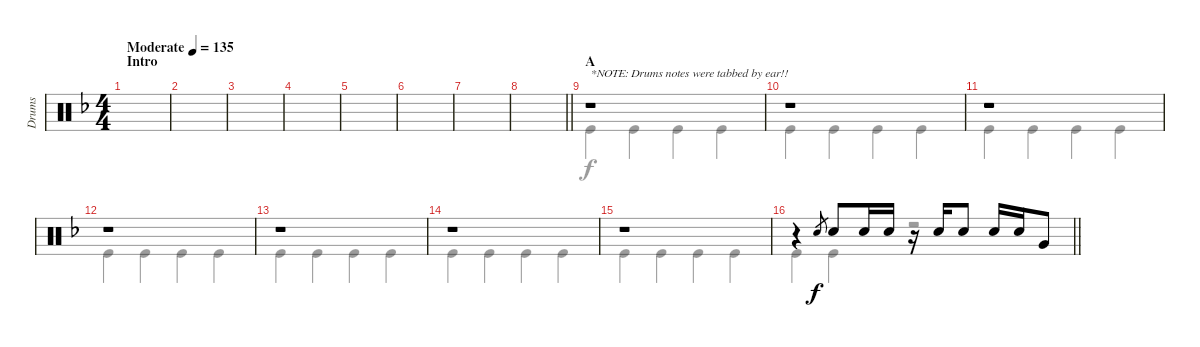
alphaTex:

\track ("Drums" "Drums") {instrument percussion}
\staff {score}
\articulation defaults
\voice
\ts (4 4)
\section ("" "Intro")
\tempo (135 "Moderate")
\clef neutral
\ks f
|
|
|
|
|
|
|
\barLineRight lightlight
|
\section ("" "A")
r.1{txt "*NOTE: Drums notes were tabbed by ear!!"} |
r.1 |
r.1 |
r.1 |
r.1 |
r.1 |
r.1 |
\barLineRight lightlight
r.4 "Snare (hit) 2".8{gr} "Snare (hit) 2".8 "Snare (hit) 2".16 "Snare (hit) 2".16 r.16 "Snare (hit) 2".16 "Snare (hit) 2".8 "Snare (hit) 2".16 "Snare (hit) 2".16 "Very Low Tom (hit)".8
\voice
\clef neutral
\ottava regular
\simile none
\ks f
|
|
|
|
|
|
|
\barLineRight lightlight
|
"Kick (hit)".4 "Kick (hit)".4 "Kick (hit)".4 "Kick (hit)".4 |
"Kick (hit)".4 "Kick (hit)".4 "Kick (hit)".4 "Kick (hit)".4 |
"Kick (hit)".4 "Kick (hit)".4 "Kick (hit)".4 "Kick (hit)".4 |
"Kick (hit)".4 "Kick (hit)".4 "Kick (hit)".4 "Kick (hit)".4 |
"Kick (hit)".4 "Kick (hit)".4 "Kick (hit)".4 "Kick (hit)".4 |
"Kick (hit)".4 "Kick (hit)".4 "Kick (hit)".4 "Kick (hit)".4 |
"Kick (hit)".4 "Kick (hit)".4 "Kick (hit)".4 "Kick (hit)".4 |
\barLineRight lightlight "Kick (hit)".4 "Kick (hit)".4
r.2
